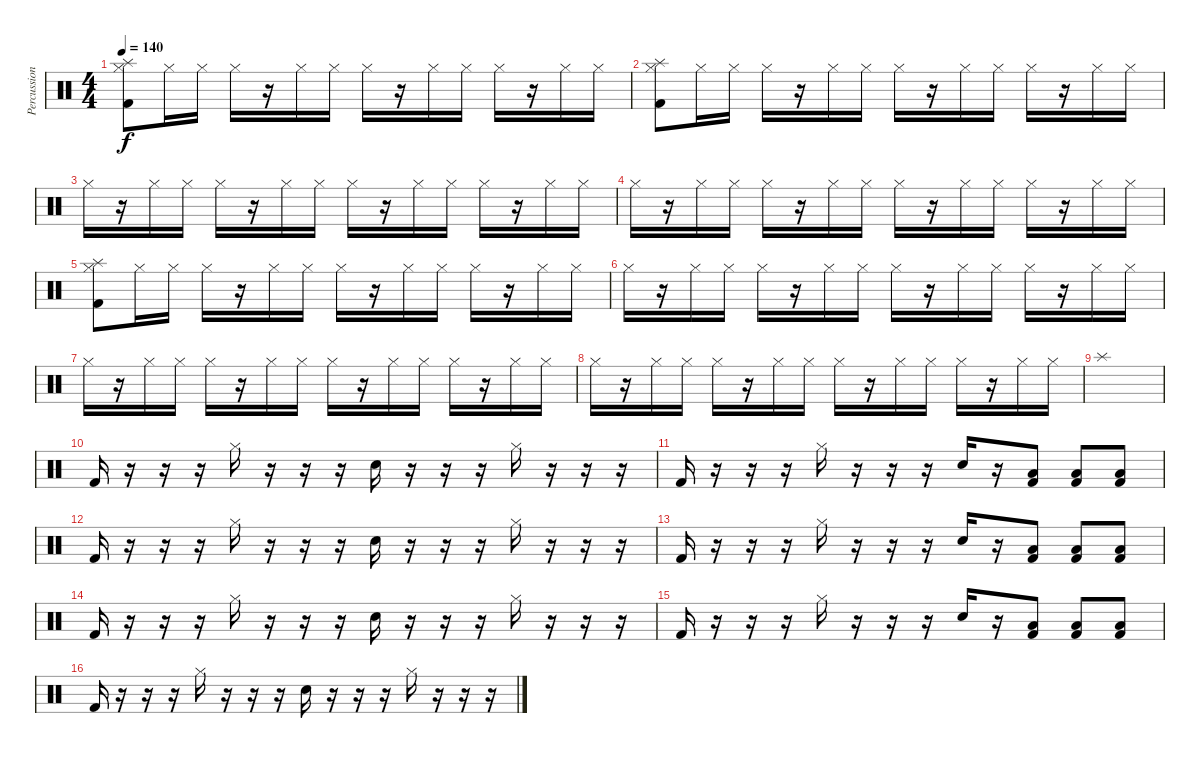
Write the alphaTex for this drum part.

\track ("Percussion" "Percussion") {instrument percussion}
\staff {score}
\articulation defaults
\ts (4 4)
\tempo 140
\clef neutral
\ks c
("Hi-Hat (closed)" "Kick (hit) 2" "Splash (hit)").8{dy f} "Hi-Hat (closed)".16 "Hi-Hat (closed)".16 "Hi-Hat (closed)".16 r.16 "Hi-Hat (closed)".16 "Hi-Hat (closed)".16 "Hi-Hat (closed)".16 r.16 "Hi-Hat (closed)".16 "Hi-Hat (closed)".16 "Hi-Hat (closed)".16 r.16 "Hi-Hat (closed)".16 "Hi-Hat (closed)".16 |
("Hi-Hat (closed)" "Kick (hit) 2" "Splash (hit)").8 "Hi-Hat (closed)".16 "Hi-Hat (closed)".16 "Hi-Hat (closed)".16 r.16 "Hi-Hat (closed)".16 "Hi-Hat (closed)".16 "Hi-Hat (closed)".16 r.16 "Hi-Hat (closed)".16 "Hi-Hat (closed)".16 "Hi-Hat (closed)".16 r.16 "Hi-Hat (closed)".16 "Hi-Hat (closed)".16 |
"Hi-Hat (closed)".16 r.16 "Hi-Hat (closed)".16 "Hi-Hat (closed)".16 "Hi-Hat (closed)".16 r.16 "Hi-Hat (closed)".16 "Hi-Hat (closed)".16 "Hi-Hat (closed)".16 r.16 "Hi-Hat (closed)".16 "Hi-Hat (closed)".16 "Hi-Hat (closed)".16 r.16 "Hi-Hat (closed)".16 "Hi-Hat (closed)".16 |
"Hi-Hat (closed)".16 r.16 "Hi-Hat (closed)".16 "Hi-Hat (closed)".16 "Hi-Hat (closed)".16 r.16 "Hi-Hat (closed)".16 "Hi-Hat (closed)".16 "Hi-Hat (closed)".16 r.16 "Hi-Hat (closed)".16 "Hi-Hat (closed)".16 "Hi-Hat (closed)".16 r.16 "Hi-Hat (closed)".16 "Hi-Hat (closed)".16 |
("Hi-Hat (closed)" "Kick (hit) 2" "Splash (hit)").8 "Hi-Hat (closed)".16 "Hi-Hat (closed)".16 "Hi-Hat (closed)".16 r.16 "Hi-Hat (closed)".16 "Hi-Hat (closed)".16 "Hi-Hat (closed)".16 r.16 "Hi-Hat (closed)".16 "Hi-Hat (closed)".16 "Hi-Hat (closed)".16 r.16 "Hi-Hat (closed)".16 "Hi-Hat (closed)".16 |
"Hi-Hat (closed)".16 r.16 "Hi-Hat (closed)".16 "Hi-Hat (closed)".16 "Hi-Hat (closed)".16 r.16 "Hi-Hat (closed)".16 "Hi-Hat (closed)".16 "Hi-Hat (closed)".16 r.16 "Hi-Hat (closed)".16 "Hi-Hat (closed)".16 "Hi-Hat (closed)".16 r.16 "Hi-Hat (closed)".16 "Hi-Hat (closed)".16 |
"Hi-Hat (closed)".16 r.16 "Hi-Hat (closed)".16 "Hi-Hat (closed)".16 "Hi-Hat (closed)".16 r.16 "Hi-Hat (closed)".16 "Hi-Hat (closed)".16 "Hi-Hat (closed)".16 r.16 "Hi-Hat (closed)".16 "Hi-Hat (closed)".16 "Hi-Hat (closed)".16 r.16 "Hi-Hat (closed)".16 "Hi-Hat (closed)".16 |
"Hi-Hat (closed)".16 r.16 "Hi-Hat (closed)".16 "Hi-Hat (closed)".16 "Hi-Hat (closed)".16 r.16 "Hi-Hat (closed)".16 "Hi-Hat (closed)".16 "Hi-Hat (closed)".16 r.16 "Hi-Hat (closed)".16 "Hi-Hat (closed)".16 "Hi-Hat (closed)".16 r.16 "Hi-Hat (closed)".16 "Hi-Hat (closed)".16 |
"Splash (hit)".1 |
"Kick (hit) 2".16 r.16 r.16 r.16 "Hi-Hat (closed)".16 r.16 r.16 r.16 "Electric Snare (hit)".16 r.16 r.16 r.16 "Hi-Hat (closed)".16 r.16 r.16 r.16 |
"Kick (hit) 2".16 r.16 r.16 r.16 "Hi-Hat (closed)".16 r.16 r.16 r.16 "Electric Snare (hit)".16 r.16 ("Kick (hit) 2" "Low Floor Tom (hit)").8 ("Kick (hit) 2" "Low Floor Tom (hit)").8 ("Kick (hit) 2" "Low Floor Tom (hit)").8 |
"Kick (hit) 2".16 r.16 r.16 r.16 "Hi-Hat (closed)".16 r.16 r.16 r.16 "Electric Snare (hit)".16 r.16 r.16 r.16 "Hi-Hat (closed)".16 r.16 r.16 r.16 |
"Kick (hit) 2".16 r.16 r.16 r.16 "Hi-Hat (closed)".16 r.16 r.16 r.16 "Electric Snare (hit)".16 r.16 ("Kick (hit) 2" "Low Floor Tom (hit)").8 ("Kick (hit) 2" "Low Floor Tom (hit)").8 ("Kick (hit) 2" "Low Floor Tom (hit)").8 |
"Kick (hit) 2".16 r.16 r.16 r.16 "Hi-Hat (closed)".16 r.16 r.16 r.16 "Electric Snare (hit)".16 r.16 r.16 r.16 "Hi-Hat (closed)".16 r.16 r.16 r.16 |
"Kick (hit) 2".16 r.16 r.16 r.16 "Hi-Hat (closed)".16 r.16 r.16 r.16 "Electric Snare (hit)".16 r.16 ("Kick (hit) 2" "Low Floor Tom (hit)").8 ("Kick (hit) 2" "Low Floor Tom (hit)").8 ("Kick (hit) 2" "Low Floor Tom (hit)").8 |
"Kick (hit) 2".16 r.16 r.16 r.16 "Hi-Hat (closed)".16 r.16 r.16 r.16 "Electric Snare (hit)".16 r.16 r.16 r.16 "Hi-Hat (closed)".16 r.16 r.16 r.16
